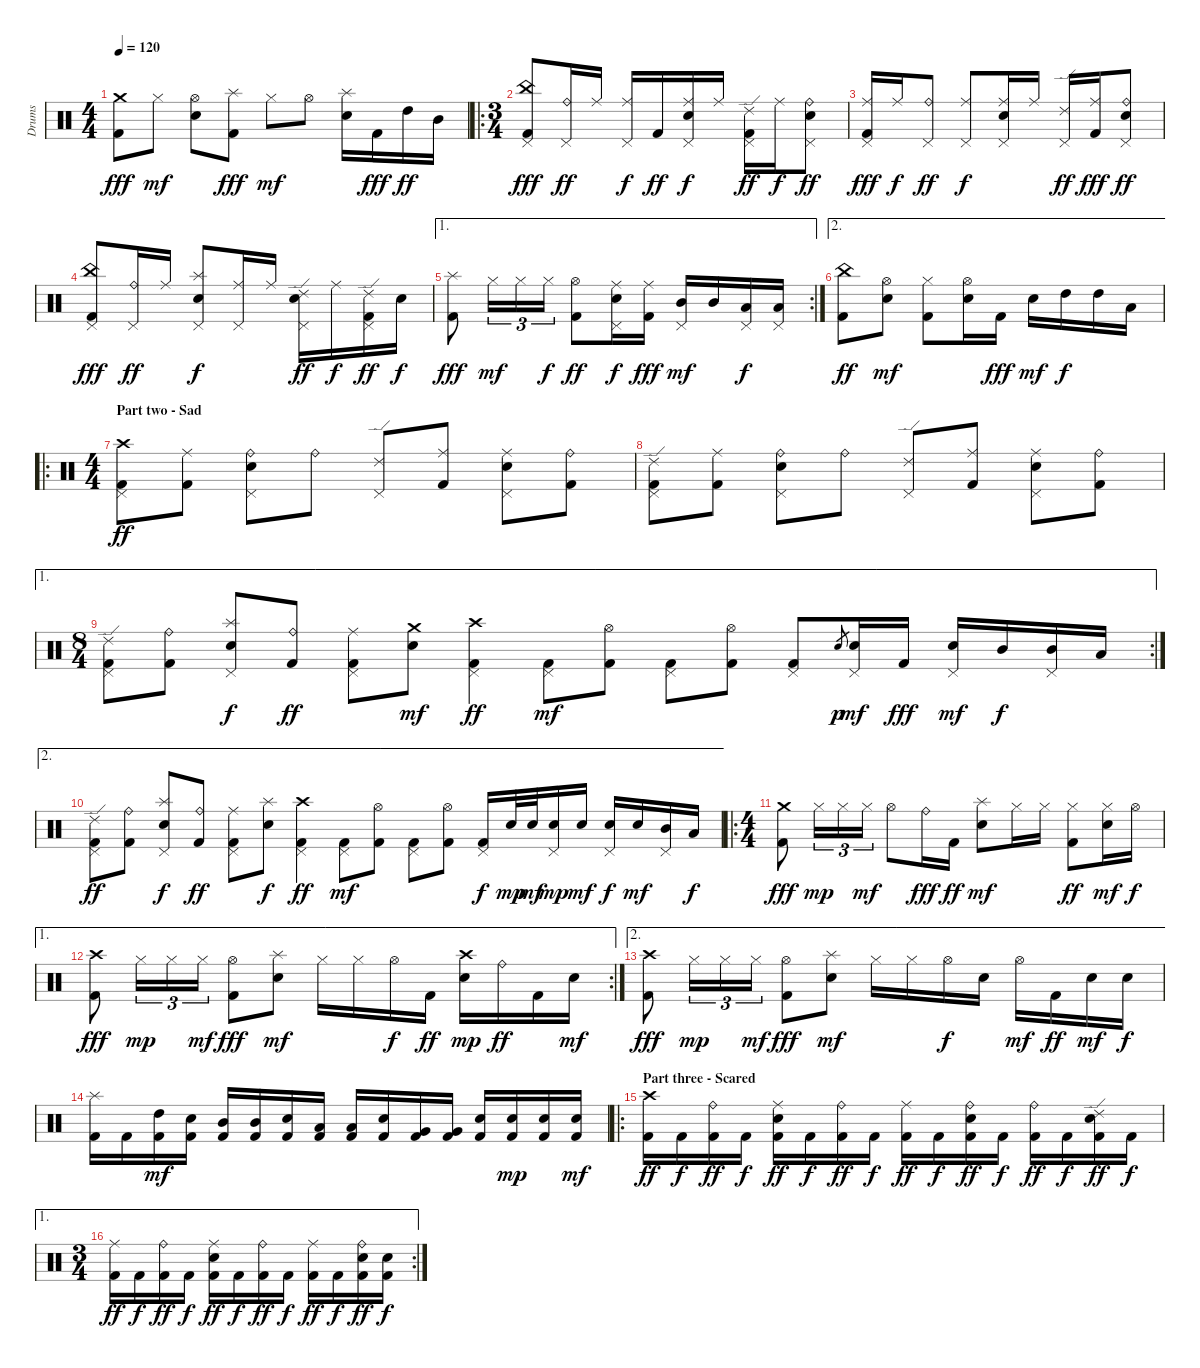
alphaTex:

\track ("Drums" "Drums") {instrument percussion}
\staff {score}
\articulation defaults
\ts (4 4)
\tempo 120
\clef neutral
\ks c
("Crash medium (hit)" "Kick (hit) 2").8{dy fff} "Hi-Hat (closed)".8{dy mf} ("Hi-Hat (open)" "Electric Snare (hit)").8 ("Splash (hit)" "Kick (hit) 2").8{dy fff} "Hi-Hat (closed)".8{dy mf} "Hi-Hat (open)".8 ("Splash (hit)" "Electric Snare (hit)").16 "Kick (hit) 2".16{dy fff} "High Tom (hit)".16{dy ff} "Mid Tom (hit)".16 |
\ro
\ts (3 4)
("China (hit)" "Pedal Hi-Hat (hit)" "Kick (hit) 2").8{dy fff} ("Ride (bell)" "Pedal Hi-Hat (hit)").16{dy ff} "Ride (middle)".16 ("Ride (middle)" "Pedal Hi-Hat (hit)").16{dy f} "Kick (hit) 2".16{dy ff} ("Ride (middle)" "Pedal Hi-Hat (hit)" "Electric Snare (hit)").16{dy f} "Ride (middle)".16 ("Ride (edge) 2" "Pedal Hi-Hat (hit)" "Kick (hit) 2").16{dy ff} "Ride (middle)".16{dy f} ("Ride (bell)" "Pedal Hi-Hat (hit)" "Electric Snare (hit)").8{dy ff} |
("Ride (middle)" "Pedal Hi-Hat (hit)" "Kick (hit) 2").16{dy fff} "Ride (middle)".16{dy f} ("Ride (bell)" "Pedal Hi-Hat (hit)").8{dy ff} ("Ride (middle)" "Pedal Hi-Hat (hit)").8{dy f} ("Ride (middle)" "Pedal Hi-Hat (hit)" "Electric Snare (hit)").16 "Ride (middle)".16 ("Ride (edge) 2" "Pedal Hi-Hat (hit)").16{dy ff} ("Ride (middle)" "Kick (hit) 2").16{dy fff} ("Ride (bell)" "Pedal Hi-Hat (hit)" "Electric Snare (hit)").8{dy ff} |
("China (hit)" "Pedal Hi-Hat (hit)" "Kick (hit) 2").8{dy fff} ("Ride (bell)" "Pedal Hi-Hat (hit)").16{dy ff} "Ride (middle)".16 ("Splash (hit)" "Pedal Hi-Hat (hit)" "Electric Snare (hit)").8{dy f} ("Ride (middle)" "Pedal Hi-Hat (hit)").16 "Ride (middle)".16 ("Ride (edge) 2" "Pedal Hi-Hat (hit)" "Electric Snare (hit)").16{dy ff} "Ride (middle)".16{dy f} ("Ride (edge) 2" "Pedal Hi-Hat (hit)" "Kick (hit) 2").16{dy ff} "Electric Snare (hit)".16{dy f} |
\ae 1
\rc 2
("Splash (hit)" "Kick (hit) 2").8{dy fff} "Hi-Hat (closed)".16{tu (3 2) dy mf} "Hi-Hat (closed)".16{tu (3 2)} "Hi-Hat (closed)".16{tu (3 2) dy f} ("Hi-Hat (open)" "Kick (hit) 2").8{dy ff} ("Ride (middle)" "Pedal Hi-Hat (hit)" "Electric Snare (hit)").16{dy f} ("Ride (middle)" "Kick (hit) 2").16{dy fff} ("Pedal Hi-Hat (hit)" "Mid Tom (hit)").16{dy mf} "Mid Tom (hit)".16 ("Pedal Hi-Hat (hit)" "Low Tom (hit)").16{dy f} ("Pedal Hi-Hat (hit)" "Low Tom (hit)").16 |
\ae 2
("China (hit)" "Kick (hit) 2").8{dy ff} ("Hi-Hat (open)" "Electric Snare (hit)").8{dy mf} ("Hi-Hat (closed)" "Kick (hit) 2").8 ("Hi-Hat (open)" "Electric Snare (hit)").16 "Kick (hit) 2".16{dy fff} "Electric Snare (hit)".16{dy mf} "High Tom (hit)".16{dy f} "High Tom (hit)".16 "Low Tom (hit)".16 |
\ro
\ts (4 4)
\section ("" "Part two - Sad")
("Crash high (hit)" "Pedal Hi-Hat (hit)" "Kick (hit) 2").8{dy ff} ("Ride (middle)" "Kick (hit) 2").8 ("Ride (bell)" "Pedal Hi-Hat (hit)" "Electric Snare (hit)").8 "Ride (bell)".8 ("Ride (edge) 2" "Pedal Hi-Hat (hit)").8 ("Ride (middle)" "Kick (hit) 2").8 ("Ride (middle)" "Pedal Hi-Hat (hit)" "Electric Snare (hit)").8 ("Ride (bell)" "Kick (hit) 2").8 |
("Ride (edge) 2" "Pedal Hi-Hat (hit)" "Kick (hit) 2").8 ("Ride (middle)" "Kick (hit) 2").8 ("Ride (bell)" "Pedal Hi-Hat (hit)" "Electric Snare (hit)").8 "Ride (bell)".8 ("Ride (edge) 2" "Pedal Hi-Hat (hit)").8 ("Ride (middle)" "Kick (hit) 2").8 ("Ride (middle)" "Pedal Hi-Hat (hit)" "Electric Snare (hit)").8 ("Ride (bell)" "Kick (hit) 2").8 |
\ae 1
\rc 2
\ts (8 4)
("Ride (edge) 2" "Pedal Hi-Hat (hit)" "Kick (hit) 2").8 ("Ride (bell)" "Kick (hit) 2").8 ("Splash (hit)" "Pedal Hi-Hat (hit)" "Electric Snare (hit)").8{dy f} ("Ride (bell)" "Kick (hit) 2").8{dy ff} ("Ride (middle)" "Pedal Hi-Hat (hit)" "Kick (hit) 2").8 ("Crash medium (hit)" "Electric Snare (hit)").8{dy mf} ("Crash high (hit)" "Pedal Hi-Hat (hit)" "Kick (hit) 2").4{dy ff} ("Pedal Hi-Hat (hit)" "Kick (hit) 2").8{dy mf} ("Hi-Hat (open)" "Kick (hit) 2").8 ("Pedal Hi-Hat (hit)" "Kick (hit) 2").8 ("Hi-Hat (open)" "Kick (hit) 2").8 ("Pedal Hi-Hat (hit)" "Kick (hit) 2").8 "Electric Snare (hit)".8{gr dy p} ("Pedal Hi-Hat (hit)" "Electric Snare (hit)").16{dy mf} "Kick (hit) 2".16{dy fff} ("Pedal Hi-Hat (hit)" "Electric Snare (hit)").16{dy mf} "Mid Tom (hit)".16{dy f} ("Pedal Hi-Hat (hit)" "Mid Tom (hit)").16 "Low Tom (hit)".16 |
\ae 2
("Ride (edge) 2" "Pedal Hi-Hat (hit)" "Kick (hit) 2").8{dy ff} ("Ride (bell)" "Kick (hit) 2").8 ("Splash (hit)" "Pedal Hi-Hat (hit)" "Electric Snare (hit)").8{dy f} ("Ride (bell)" "Kick (hit) 2").8{dy ff} ("Ride (middle)" "Pedal Hi-Hat (hit)" "Kick (hit) 2").8 ("Splash (hit)" "Electric Snare (hit)").8{dy f} ("Crash high (hit)" "Pedal Hi-Hat (hit)" "Kick (hit) 2").4{dy ff} ("Pedal Hi-Hat (hit)" "Kick (hit) 2").8{dy mf} ("Hi-Hat (open)" "Kick (hit) 2").8 ("Pedal Hi-Hat (hit)" "Kick (hit) 2").8 ("Hi-Hat (open)" "Kick (hit) 2").8 ("Pedal Hi-Hat (hit)" "Kick (hit) 2").16{dy f} "Electric Snare (hit)".32{dy mp} "Electric Snare (hit)".32{dy mf} ("Pedal Hi-Hat (hit)" "Electric Snare (hit)").16{dy mp} "Electric Snare (hit)".16{dy mf} ("Pedal Hi-Hat (hit)" "Electric Snare (hit)").16{dy f} "Electric Snare (hit)".16{dy mf} ("Pedal Hi-Hat (hit)" "Mid Tom (hit)").16 "Low Tom (hit)".16{dy f} |
\ro
\ts (4 4)
("Crash medium (hit)" "Kick (hit) 2").8{dy fff} "Hi-Hat (closed)".16{tu (3 2) dy mp} "Hi-Hat (closed)".16{tu (3 2)} "Hi-Hat (closed)".16{tu (3 2) dy mf} "Hi-Hat (open)".8 "Ride (bell)".16{dy fff} "Kick (hit) 2".16{dy ff} ("Splash (hit)" "Electric Snare (hit)").8{dy mf} "Hi-Hat (closed)".16 "Hi-Hat (closed)".16 ("Hi-Hat (closed)" "Kick (hit) 2").8{dy ff} ("Hi-Hat (closed)" "Electric Snare (hit)").16{dy mf} "Hi-Hat (open)".16{dy f} |
\ae 1
\rc 2
("Crash high (hit)" "Kick (hit) 2").8{dy fff} "Hi-Hat (closed)".16{tu (3 2) dy mp} "Hi-Hat (closed)".16{tu (3 2)} "Hi-Hat (closed)".16{tu (3 2) dy mf} ("Hi-Hat (open)" "Kick (hit) 2").8{dy fff} ("Splash (hit)" "Electric Snare (hit)").8{dy mf} "Hi-Hat (closed)".16 "Hi-Hat (closed)".16 "Hi-Hat (open)".16{dy f} "Kick (hit) 2".16{dy ff} ("Crash high (hit)" "Electric Snare (hit)").16{dy mp} "Ride (bell)".16{dy ff} "Kick (hit) 2".16 "Electric Snare (hit)".16{dy mf} |
\ae 2
("Crash high (hit)" "Kick (hit) 2").8{dy fff} "Hi-Hat (closed)".16{tu (3 2) dy mp} "Hi-Hat (closed)".16{tu (3 2)} "Hi-Hat (closed)".16{tu (3 2) dy mf} ("Hi-Hat (open)" "Kick (hit) 2").8{dy fff} ("Splash (hit)" "Electric Snare (hit)").8{dy mf} "Hi-Hat (closed)".16 "Hi-Hat (closed)".16 "Hi-Hat (open)".16{dy f} "Electric Snare (hit)".16 "Hi-Hat (open)".16{dy mf} "Kick (hit) 2".16{dy ff} "Electric Snare (hit)".16{dy mf} "Electric Snare (hit)".16{dy f} |
("Splash (hit)" "Kick (hit) 2").16 "Kick (hit) 2".16 ("High Tom (hit)" "Kick (hit) 2").16{dy mf} ("Electric Snare (hit)" "Kick (hit) 2").16 ("Mid Tom (hit)" "Kick (hit) 2").16 ("Mid Tom (hit)" "Kick (hit) 2").16 ("Electric Snare (hit)" "Kick (hit) 2").16 ("Low Tom (hit)" "Kick (hit) 2").16 ("Low Tom (hit)" "Kick (hit) 2").16 ("Electric Snare (hit)" "Kick (hit) 2").16 ("Very Low Tom (hit)" "Kick (hit) 2").16 ("Very Low Tom (hit)" "Kick (hit) 2").16 ("Electric Snare (hit)" "Kick (hit) 2").16 ("Electric Snare (hit)" "Kick (hit) 2").16{dy mp} ("Electric Snare (hit)" "Kick (hit) 2").16 ("Electric Snare (hit)" "Kick (hit) 2").16{dy mf} |
\ro
\section ("" "Part three - Scared")
("Crash high (hit)" "Kick (hit) 2").16{dy ff} "Kick (hit) 2".16{dy f} ("Ride (bell)" "Kick (hit) 2").16{dy ff} "Kick (hit) 2".16{dy f} ("Ride (middle)" "Electric Snare (hit)" "Kick (hit) 2").16{dy ff} "Kick (hit) 2".16{dy f} ("Ride (bell)" "Kick (hit) 2").16{dy ff} "Kick (hit) 2".16{dy f} ("Ride (middle)" "Kick (hit) 2").16{dy ff} "Kick (hit) 2".16{dy f} ("Ride (bell)" "Electric Snare (hit)" "Kick (hit) 2").16{dy ff} "Kick (hit) 2".16{dy f} ("Ride (bell)" "Kick (hit) 2").16{dy ff} "Kick (hit) 2".16{dy f} ("Ride (edge) 2" "Electric Snare (hit)" "Kick (hit) 2").16{dy ff} "Kick (hit) 2".16{dy f} |
\ae 1
\rc 2
\ts (3 4)
("Ride (middle)" "Kick (hit) 2").16{dy ff} "Kick (hit) 2".16{dy f} ("Ride (bell)" "Kick (hit) 2").16{dy ff} "Kick (hit) 2".16{dy f} ("Ride (middle)" "Electric Snare (hit)" "Kick (hit) 2").16{dy ff} "Kick (hit) 2".16{dy f} ("Ride (bell)" "Kick (hit) 2").16{dy ff} "Kick (hit) 2".16{dy f} ("Ride (middle)" "Kick (hit) 2").16{dy ff} "Kick (hit) 2".16{dy f} ("Ride (bell)" "Electric Snare (hit)" "Kick (hit) 2").16{dy ff} ("Electric Snare (hit)" "Kick (hit) 2").16{dy f}
